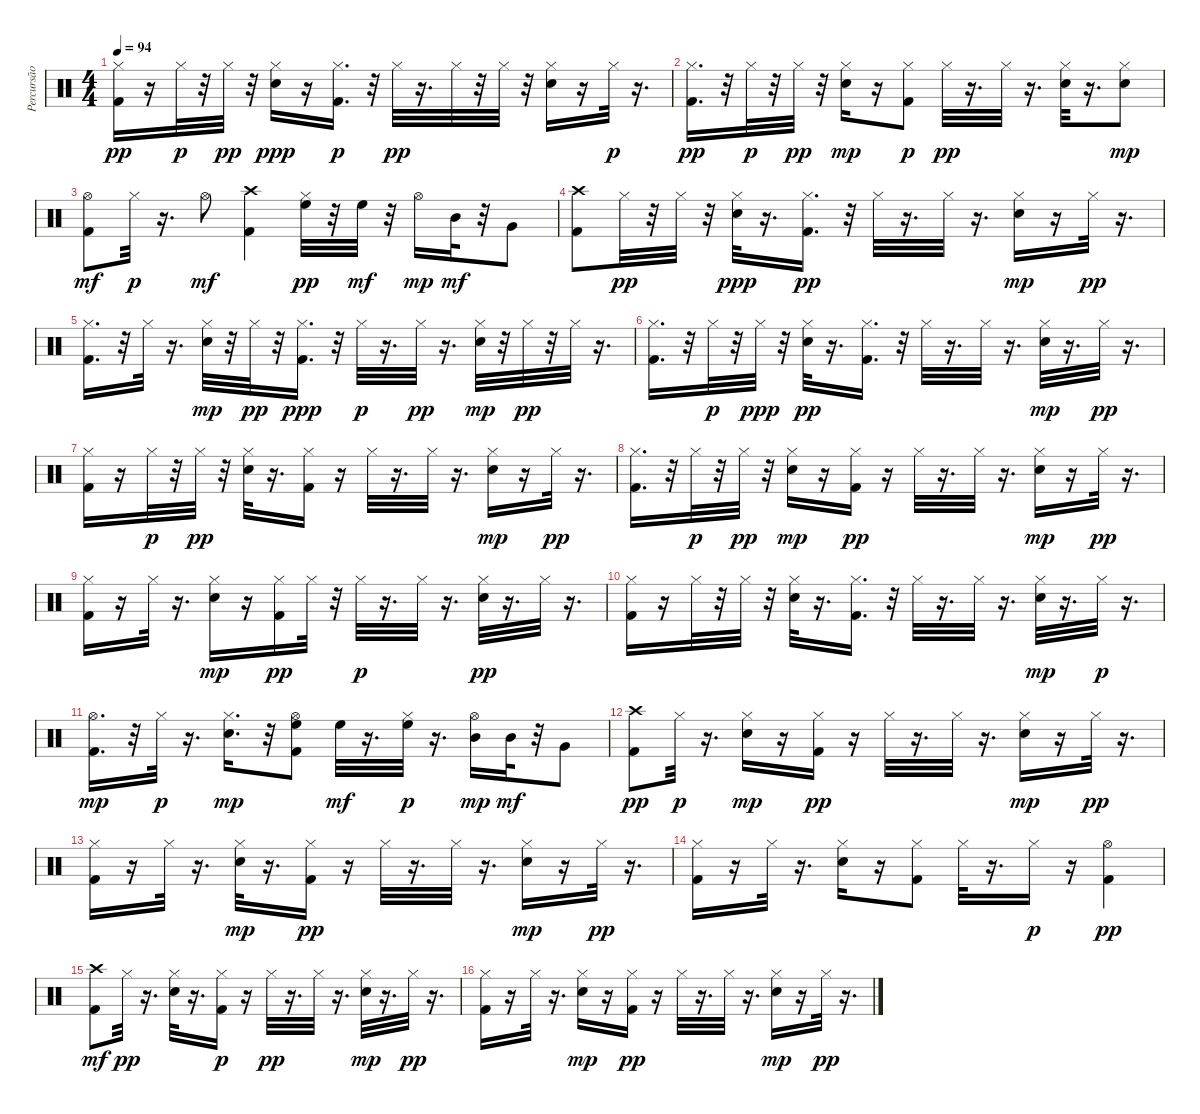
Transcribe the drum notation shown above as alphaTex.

\track ("Percursão" "Percursão") {instrument percussion}
\staff {score}
\articulation defaults
\ts (4 4)
\tempo 94
\clef neutral
\ks c
("Kick (hit) 2" "Hi-Hat (closed)").16{dy pp} r.16 "Hi-Hat (closed)".32{dy p} r.32 "Hi-Hat (closed)".32{dy pp} r.32 ("Snare (hit) 2" "Hi-Hat (closed)").16{dy ppp} r.16 ("Kick (hit) 2" "Hi-Hat (closed)").16{d dy p} r.32 "Hi-Hat (closed)".32{dy pp} r.16{d} "Hi-Hat (closed)".32 r.32 "Hi-Hat (closed)".32 r.32 ("Snare (hit) 2" "Hi-Hat (closed)").16 r.16 "Hi-Hat (closed)".32{dy p} r.16{d} |
("Hi-Hat (closed)" "Kick (hit) 2").16{d dy pp} r.32 "Hi-Hat (closed)".32{dy p} r.32 "Hi-Hat (closed)".32{dy pp} r.32 ("Hi-Hat (closed)" "Snare (hit) 2").16{dy mp} r.16 ("Kick (hit) 2" "Hi-Hat (closed)").8{dy p} "Hi-Hat (closed)".32{dy pp} r.16{d} "Hi-Hat (closed)".32 r.16{d} ("Snare (hit) 2" "Hi-Hat (closed)").32 r.16{d} ("Hi-Hat (closed)" "Snare (hit) 2").8{dy mp} |
("Kick (hit) 2" "Hi-Hat (open)").8{dy mf} "Hi-Hat (closed)".32{dy p} r.16{d} "Hi-Hat (open)".8{dy mf} ("Kick (hit) 2" "Crash high (hit)").4 ("High Floor Tom (hit)" "Hi-Hat (closed)").32{dy pp} r.32 "High Floor Tom (hit)".32{dy mf} r.32 "Hi-Hat (open)".16{dy mp} "Mid Tom (hit)".32{dy mf} r.32 "Very Low Tom (hit)".8 |
("Kick (hit) 2" "Crash high (hit)").8 "Hi-Hat (closed)".32{dy pp} r.32 "Hi-Hat (closed)".32 r.32 ("Snare (hit) 2" "Hi-Hat (closed)").32{dy ppp} r.16{d} ("Hi-Hat (closed)" "Kick (hit) 2").16{d dy pp} r.32 "Hi-Hat (closed)".32 r.16{d} "Hi-Hat (closed)".32 r.16{d} ("Hi-Hat (closed)" "Snare (hit) 2").16{dy mp} r.16 "Hi-Hat (closed)".32{dy pp} r.16{d} |
("Kick (hit) 2" "Hi-Hat (closed)").16{d} r.32 "Hi-Hat (closed)".32 r.16{d} ("Hi-Hat (closed)" "Snare (hit) 2").32{dy mp} r.32 "Hi-Hat (closed)".32{dy pp} r.32 ("Kick (hit) 2" "Hi-Hat (closed)").16{d dy ppp} r.32 "Hi-Hat (closed)".32{dy p} r.16{d} "Hi-Hat (closed)".32{dy pp} r.16{d} ("Hi-Hat (closed)" "Snare (hit) 2").32{dy mp} r.32 "Hi-Hat (closed)".32{dy pp} r.32 "Hi-Hat (closed)".32 r.16{d} |
("Kick (hit) 2" "Hi-Hat (closed)").16{d} r.32 "Hi-Hat (closed)".32{dy p} r.32 "Hi-Hat (closed)".32{dy ppp} r.32 ("Snare (hit) 2" "Hi-Hat (closed)").32{dy pp} r.16{d} ("Hi-Hat (closed)" "Kick (hit) 2").16{d} r.32 "Hi-Hat (closed)".32 r.16{d} "Hi-Hat (closed)".32 r.16{d} ("Hi-Hat (closed)" "Snare (hit) 2").32{dy mp} r.16{d} "Hi-Hat (closed)".32{dy pp} r.16{d} |
("Kick (hit) 2" "Hi-Hat (closed)").16 r.16 "Hi-Hat (closed)".32{dy p} r.32 "Hi-Hat (closed)".32{dy pp} r.32 ("Snare (hit) 2" "Hi-Hat (closed)").32 r.16{d} ("Kick (hit) 2" "Hi-Hat (closed)").16 r.16 "Hi-Hat (closed)".32 r.16{d} "Hi-Hat (closed)".32 r.16{d} ("Hi-Hat (closed)" "Snare (hit) 2").16{dy mp} r.16 "Hi-Hat (closed)".32{dy pp} r.16{d} |
("Kick (hit) 2" "Hi-Hat (closed)").16{d} r.32 "Hi-Hat (closed)".32{dy p} r.32 "Hi-Hat (closed)".32{dy pp} r.32 ("Hi-Hat (closed)" "Snare (hit) 2").16{dy mp} r.16 ("Kick (hit) 2" "Hi-Hat (closed)").16{dy pp} r.16 "Hi-Hat (closed)".32 r.16{d} "Hi-Hat (closed)".32 r.16{d} ("Hi-Hat (closed)" "Snare (hit) 2").16{dy mp} r.16 "Hi-Hat (closed)".32{dy pp} r.16{d} |
("Kick (hit) 2" "Hi-Hat (closed)").16 r.16 "Hi-Hat (closed)".32 r.16{d} ("Hi-Hat (closed)" "Snare (hit) 2").16{dy mp} r.16 ("Kick (hit) 2" "Hi-Hat (closed)").16{dy pp} "Hi-Hat (closed)".32 r.32 "Hi-Hat (closed)".32{dy p} r.16{d} "Hi-Hat (closed)".32 r.16{d} ("Snare (hit) 2" "Hi-Hat (closed)").32{dy pp} r.16{d} "Hi-Hat (closed)".32 r.16{d} |
("Kick (hit) 2" "Hi-Hat (closed)").16 r.16 "Hi-Hat (closed)".32 r.32 "Hi-Hat (closed)".32 r.32 ("Snare (hit) 2" "Hi-Hat (closed)").32 r.16{d} ("Kick (hit) 2" "Hi-Hat (closed)").16{d} r.32 "Hi-Hat (closed)".32 r.16{d} "Hi-Hat (closed)".32 r.16{d} ("Hi-Hat (closed)" "Snare (hit) 2").32{dy mp} r.16{d} "Hi-Hat (closed)".32{dy p} r.16{d} |
("Kick (hit) 2" "Hi-Hat (open)").16{d dy mp} r.32 "Hi-Hat (closed)".32{dy p} r.16{d} ("Hi-Hat (closed)" "Snare (hit) 2").16{d dy mp} r.32 ("Kick (hit) 2" "High Floor Tom (hit)" "Hi-Hat (open)").8 "High Floor Tom (hit)".32{dy mf} r.16{d} ("High Floor Tom (hit)" "Hi-Hat (closed)").32{dy p} r.16{d} ("Mid Tom (hit)" "Hi-Hat (open)").16{dy mp} "Mid Tom (hit)".32{dy mf} r.32 "Very Low Tom (hit)".8 |
("Crash high (hit)" "Kick (hit) 2").8{dy pp} "Hi-Hat (closed)".32{dy p} r.16{d} ("Hi-Hat (closed)" "Snare (hit) 2").16{dy mp} r.16 ("Kick (hit) 2" "Hi-Hat (closed)").16{dy pp} r.16 "Hi-Hat (closed)".32 r.16{d} "Hi-Hat (closed)".32 r.16{d} ("Hi-Hat (closed)" "Snare (hit) 2").16{dy mp} r.16 "Hi-Hat (closed)".32{dy pp} r.16{d} |
("Kick (hit) 2" "Hi-Hat (closed)").16 r.16 "Hi-Hat (closed)".32 r.16{d} ("Hi-Hat (closed)" "Snare (hit) 2").32{dy mp} r.16{d} ("Hi-Hat (closed)" "Kick (hit) 2").16{dy pp} r.16 "Hi-Hat (closed)".32 r.16{d} "Hi-Hat (closed)".32 r.16{d} ("Hi-Hat (closed)" "Snare (hit) 2").16{dy mp} r.16 "Hi-Hat (closed)".32{dy pp} r.16{d} |
("Kick (hit) 2" "Hi-Hat (closed)").16 r.16 "Hi-Hat (closed)".32 r.16{d} ("Snare (hit) 2" "Hi-Hat (closed)").16 r.16 ("Kick (hit) 2" "Hi-Hat (closed)").8 "Hi-Hat (closed)".32 r.16{d} "Hi-Hat (closed)".16{dy p} r.16 ("Hi-Hat (open)" "Kick (hit) 2").4{dy pp} |
("Kick (hit) 2" "Crash high (hit)").8{dy mf} "Hi-Hat (closed)".32{dy pp} r.16{d} ("Snare (hit) 2" "Hi-Hat (closed)").32 r.16{d} ("Kick (hit) 2" "Hi-Hat (closed)").16{dy p} r.16 "Hi-Hat (closed)".32{dy pp} r.16{d} "Hi-Hat (closed)".32 r.16{d} ("Hi-Hat (closed)" "Snare (hit) 2").32{dy mp} r.16{d} "Hi-Hat (closed)".32{dy pp} r.16{d} |
("Hi-Hat (closed)" "Kick (hit) 2").16 r.16 "Hi-Hat (closed)".32 r.16{d} ("Hi-Hat (closed)" "Snare (hit) 2").16{dy mp} r.16 ("Kick (hit) 2" "Hi-Hat (closed)").16{dy pp} r.16 "Hi-Hat (closed)".32 r.16{d} "Hi-Hat (closed)".32 r.16{d} ("Hi-Hat (closed)" "Snare (hit) 2").16{dy mp} r.16 "Hi-Hat (closed)".32{dy pp} r.16{d}
